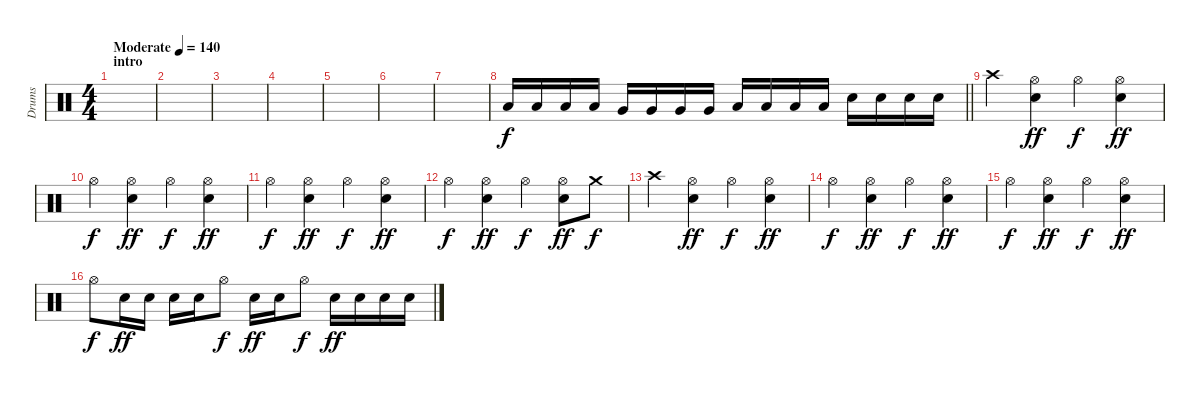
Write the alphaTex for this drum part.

\track ("Drums" "Drums") {instrument percussion}
\staff {score}
\articulation defaults
\ts (4 4)
\section ("" "intro")
\tempo (140 "Moderate")
\clef neutral
\ks c
|
|
|
|
|
|
|
\barLineRight lightlight "Low Tom (hit)".16 "Low Tom (hit)".16 "Low Tom (hit)".16 "Low Tom (hit)".16 "Very Low Tom (hit)".16 "Very Low Tom (hit)".16 "Very Low Tom (hit)".16 "Very Low Tom (hit)".16 "Low Floor Tom (hit)".16 "Low Floor Tom (hit)".16 "Low Floor Tom (hit)".16 "Low Floor Tom (hit)".16 "Snare (hit) 2".16 "Snare (hit) 2".16 "Snare (hit) 2".16 "Snare (hit) 2".16
|
\section ("" "")
"Crash high (hit)".4{dy f} ("Hi-Hat (open)" "Snare (hit) 2").4{dy ff} "Hi-Hat (open)".4{dy f} ("Hi-Hat (open)" "Snare (hit) 2").4{dy ff} |
"Hi-Hat (open)".4{dy f} ("Hi-Hat (open)" "Snare (hit) 2").4{dy ff} "Hi-Hat (open)".4{dy f} ("Hi-Hat (open)" "Snare (hit) 2").4{dy ff} |
"Hi-Hat (open)".4{dy f} ("Hi-Hat (open)" "Snare (hit) 2").4{dy ff} "Hi-Hat (open)".4{dy f} ("Hi-Hat (open)" "Snare (hit) 2").4{dy ff} |
"Hi-Hat (open)".4{dy f} ("Hi-Hat (open)" "Snare (hit) 2").4{dy ff} "Hi-Hat (open)".4{dy f} ("Hi-Hat (open)" "Snare (hit) 2").8{dy ff} "Crash medium (hit)".8{dy f} |
"Crash high (hit)".4 ("Hi-Hat (open)" "Snare (hit) 2").4{dy ff} "Hi-Hat (open)".4{dy f} ("Hi-Hat (open)" "Snare (hit) 2").4{dy ff} |
"Hi-Hat (open)".4{dy f} ("Hi-Hat (open)" "Snare (hit) 2").4{dy ff} "Hi-Hat (open)".4{dy f} ("Hi-Hat (open)" "Snare (hit) 2").4{dy ff} |
"Hi-Hat (open)".4{dy f} ("Hi-Hat (open)" "Snare (hit) 2").4{dy ff} "Hi-Hat (open)".4{dy f} ("Hi-Hat (open)" "Snare (hit) 2").4{dy ff} |
"Hi-Hat (open)".8{dy f} "Snare (hit) 2".16{dy ff} "Snare (hit) 2".16 "Snare (hit) 2".16 "Snare (hit) 2".16 "Hi-Hat (open)".8{dy f} "Snare (hit) 2".16{dy ff} "Snare (hit) 2".16 "Hi-Hat (open)".8{dy f} "Snare (hit) 2".16{dy ff} "Snare (hit) 2".16 "Snare (hit) 2".16 "Snare (hit) 2".16
